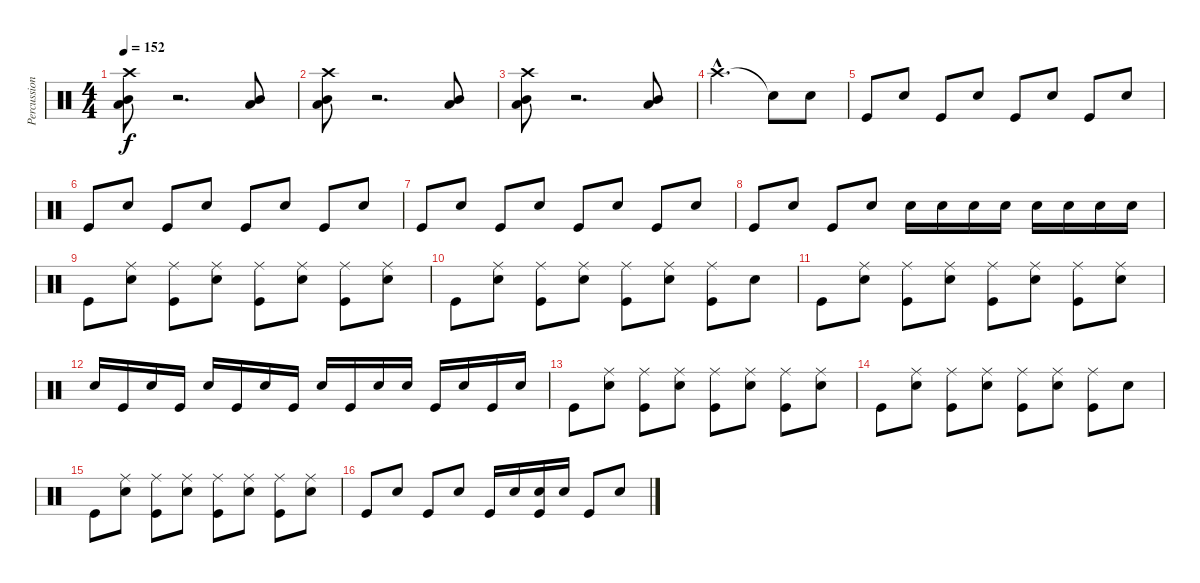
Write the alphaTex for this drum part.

\track ("Percussion" "Percussion") {instrument percussion}
\staff {score}
\articulation defaults
\ts (4 4)
\tempo 152
\clef neutral
\ks c
("Crash high (hit)" "Mid Tom (hit)" "Low Tom (hit)").8{dy f} r.2{d} ("Mid Tom (hit)" "Low Tom (hit)").8 |
("Crash high (hit)" "Mid Tom (hit)" "Low Tom (hit)").8 r.2{d} ("Mid Tom (hit)" "Low Tom (hit)").8 |
("Crash high (hit)" "Mid Tom (hit)" "Low Tom (hit)").8 r.2{d} ("Mid Tom (hit)" "Low Tom (hit)").8 |
"Crash high (hit)"{hac}.2{d} "Snare (hit)"{t}.8 "Snare (hit) 2".8 |
"Kick (hit)".8 "Snare (hit) 2".8 "Kick (hit)".8 "Snare (hit) 2".8 "Kick (hit)".8 "Snare (hit) 2".8 "Kick (hit)".8 "Snare (hit) 2".8 |
"Kick (hit)".8 "Snare (hit) 2".8 "Kick (hit)".8 "Snare (hit) 2".8 "Kick (hit)".8 "Snare (hit) 2".8 "Kick (hit)".8 "Snare (hit) 2".8 |
"Kick (hit)".8 "Snare (hit) 2".8 "Kick (hit)".8 "Snare (hit) 2".8 "Kick (hit)".8 "Snare (hit) 2".8 "Kick (hit)".8 "Snare (hit) 2".8 |
"Kick (hit)".8 "Snare (hit) 2".8 "Kick (hit)".8 "Snare (hit) 2".8 "Snare (hit) 2".16 "Snare (hit) 2".16 "Snare (hit) 2".16 "Snare (hit) 2".16 "Snare (hit) 2".16 "Snare (hit) 2".16 "Snare (hit) 2".16 "Snare (hit) 2".16 |
"Kick (hit)".8 ("Ride (middle)" "Snare (hit) 2").8 ("Ride (middle)" "Kick (hit)").8 ("Ride (middle)" "Snare (hit) 2").8 ("Ride (middle)" "Kick (hit)").8 ("Ride (middle)" "Snare (hit) 2").8 ("Ride (middle)" "Kick (hit)").8 ("Ride (middle)" "Snare (hit) 2").8 |
"Kick (hit)".8 ("Ride (middle)" "Snare (hit) 2").8 ("Ride (middle)" "Kick (hit)").8 ("Ride (middle)" "Snare (hit) 2").8 ("Ride (middle)" "Kick (hit)").8 ("Ride (middle)" "Snare (hit) 2").8 ("Ride (middle)" "Kick (hit)").8 "Snare (hit) 2".8 |
"Kick (hit)".8 ("Ride (middle)" "Snare (hit) 2").8 ("Ride (middle)" "Kick (hit)").8 ("Ride (middle)" "Snare (hit) 2").8 ("Ride (middle)" "Kick (hit)").8 ("Ride (middle)" "Snare (hit) 2").8 ("Ride (middle)" "Kick (hit)").8 ("Ride (middle)" "Snare (hit) 2").8 |
"Snare (hit) 2".16 "Kick (hit)".16 "Snare (hit) 2".16 "Kick (hit)".16 "Snare (hit) 2".16 "Kick (hit)".16 "Snare (hit) 2".16 "Kick (hit)".16 "Snare (hit) 2".16 "Kick (hit)".16 "Snare (hit) 2".16 "Snare (hit) 2".16 "Kick (hit)".16 "Snare (hit) 2".16 "Kick (hit)".16 "Snare (hit) 2".16 |
"Kick (hit)".8 ("Ride (middle)" "Snare (hit) 2").8 ("Ride (middle)" "Kick (hit)").8 ("Ride (middle)" "Snare (hit) 2").8 ("Ride (middle)" "Kick (hit)").8 ("Ride (middle)" "Snare (hit) 2").8 ("Ride (middle)" "Kick (hit)").8 ("Ride (middle)" "Snare (hit) 2").8 |
"Kick (hit)".8 ("Ride (middle)" "Snare (hit) 2").8 ("Ride (middle)" "Kick (hit)").8 ("Ride (middle)" "Snare (hit) 2").8 ("Ride (middle)" "Kick (hit)").8 ("Ride (middle)" "Snare (hit) 2").8 ("Ride (middle)" "Kick (hit)").8 "Snare (hit) 2".8 |
"Kick (hit)".8 ("Ride (middle)" "Snare (hit) 2").8 ("Ride (middle)" "Kick (hit)").8 ("Ride (middle)" "Snare (hit) 2").8 ("Ride (middle)" "Kick (hit)").8 ("Ride (middle)" "Snare (hit) 2").8 ("Ride (middle)" "Kick (hit)").8 ("Ride (middle)" "Snare (hit) 2").8 |
"Kick (hit)".8 "Snare (hit) 2".8 "Kick (hit)".8 "Snare (hit) 2".8 "Kick (hit)".16 "Snare (hit) 2".16 ("Snare (hit) 2" "Kick (hit)").16 "Snare (hit) 2".16 "Kick (hit)".8 "Snare (hit) 2".8
